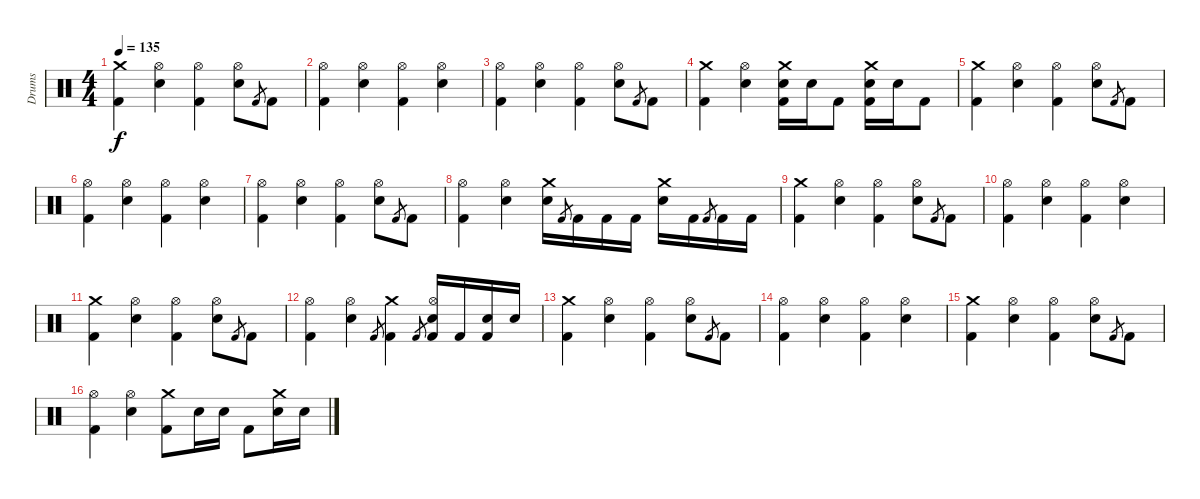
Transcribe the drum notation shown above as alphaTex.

\track ("Drums" "Drums") {instrument percussion}
\staff {score}
\articulation defaults
\ts (4 4)
\tempo 135
\clef neutral
\ks c
("Crash medium (hit)" "Kick (hit) 2").4{dy f} ("Hi-Hat (open)" "Snare (hit) 2").4 ("Hi-Hat (open)" "Kick (hit) 2").4 ("Hi-Hat (open)" "Snare (hit) 2").8 "Kick (hit) 2".8{gr} "Kick (hit) 2".8 |
("Hi-Hat (open)" "Kick (hit) 2").4 ("Hi-Hat (open)" "Snare (hit) 2").4 ("Hi-Hat (open)" "Kick (hit) 2").4 ("Hi-Hat (open)" "Snare (hit) 2").4 |
("Hi-Hat (open)" "Kick (hit) 2").4 ("Hi-Hat (open)" "Snare (hit) 2").4 ("Hi-Hat (open)" "Kick (hit) 2").4 ("Hi-Hat (open)" "Snare (hit) 2").8 "Kick (hit) 2".8{gr} "Kick (hit) 2".8 |
("Crash medium (hit)" "Kick (hit) 2").4 ("Hi-Hat (open)" "Snare (hit) 2").4 ("Crash medium (hit)" "Snare (hit) 2" "Kick (hit) 2").16 "Snare (hit) 2".16 "Kick (hit) 2".8 ("Crash medium (hit)" "Snare (hit) 2" "Kick (hit) 2").16 "Snare (hit) 2".16 "Kick (hit) 2".8 |
("Crash medium (hit)" "Kick (hit) 2").4 ("Hi-Hat (open)" "Snare (hit) 2").4 ("Hi-Hat (open)" "Kick (hit) 2").4 ("Hi-Hat (open)" "Snare (hit) 2").8 "Kick (hit) 2".8{gr} "Kick (hit) 2".8 |
("Hi-Hat (open)" "Kick (hit) 2").4 ("Hi-Hat (open)" "Snare (hit) 2").4 ("Hi-Hat (open)" "Kick (hit) 2").4 ("Hi-Hat (open)" "Snare (hit) 2").4 |
("Hi-Hat (open)" "Kick (hit) 2").4 ("Hi-Hat (open)" "Snare (hit) 2").4 ("Hi-Hat (open)" "Kick (hit) 2").4 ("Hi-Hat (open)" "Snare (hit) 2").8 "Kick (hit) 2".8{gr} "Kick (hit) 2".8 |
("Hi-Hat (open)" "Kick (hit) 2").4 ("Hi-Hat (open)" "Snare (hit) 2").4 ("Crash medium (hit)" "Snare (hit) 2").16 "Kick (hit) 2".8{gr} "Kick (hit) 2".16 "Kick (hit) 2".16 "Kick (hit) 2".16 ("Crash medium (hit)" "Snare (hit) 2").16 "Kick (hit) 2".16 "Kick (hit) 2".8{gr} "Kick (hit) 2".16 "Kick (hit) 2".16 |
("Crash medium (hit)" "Kick (hit) 2").4 ("Hi-Hat (open)" "Snare (hit) 2").4 ("Hi-Hat (open)" "Kick (hit) 2").4 ("Hi-Hat (open)" "Snare (hit) 2").8 "Kick (hit) 2".8{gr} "Kick (hit) 2".8 |
("Hi-Hat (open)" "Kick (hit) 2").4 ("Hi-Hat (open)" "Snare (hit) 2").4 ("Hi-Hat (open)" "Kick (hit) 2").4 ("Hi-Hat (open)" "Snare (hit) 2").4 |
("Crash medium (hit)" "Kick (hit) 2").4 ("Hi-Hat (open)" "Snare (hit) 2").4 ("Hi-Hat (open)" "Kick (hit) 2").4 ("Hi-Hat (open)" "Snare (hit) 2").8 "Kick (hit) 2".8{gr} "Kick (hit) 2".8 |
("Hi-Hat (open)" "Kick (hit) 2").4 ("Hi-Hat (open)" "Snare (hit) 2").4 "Kick (hit) 2".8{gr} ("Crash medium (hit)" "Kick (hit) 2").4 "Kick (hit) 2".8{gr} ("Hi-Hat (open)" "Snare (hit) 2" "Kick (hit) 2").16 "Kick (hit) 2".16 ("Snare (hit) 2" "Kick (hit) 2").16 "Snare (hit) 2".16 |
("Crash medium (hit)" "Kick (hit) 2").4 ("Hi-Hat (open)" "Snare (hit) 2").4 ("Hi-Hat (open)" "Kick (hit) 2").4 ("Hi-Hat (open)" "Snare (hit) 2").8 "Kick (hit) 2".8{gr} "Kick (hit) 2".8 |
("Hi-Hat (open)" "Kick (hit) 2").4 ("Hi-Hat (open)" "Snare (hit) 2").4 ("Hi-Hat (open)" "Kick (hit) 2").4 ("Hi-Hat (open)" "Snare (hit) 2").4 |
("Crash medium (hit)" "Kick (hit) 2").4 ("Hi-Hat (open)" "Snare (hit) 2").4 ("Hi-Hat (open)" "Kick (hit) 2").4 ("Hi-Hat (open)" "Snare (hit) 2").8 "Kick (hit) 2".8{gr} "Kick (hit) 2".8 |
("Hi-Hat (open)" "Kick (hit) 2").4 ("Hi-Hat (open)" "Snare (hit) 2").4 ("Crash medium (hit)" "Kick (hit) 2").8 "Snare (hit) 2".16 "Snare (hit) 2".16 "Kick (hit) 2".8 ("Crash medium (hit)" "Snare (hit) 2").16 "Snare (hit) 2".16
